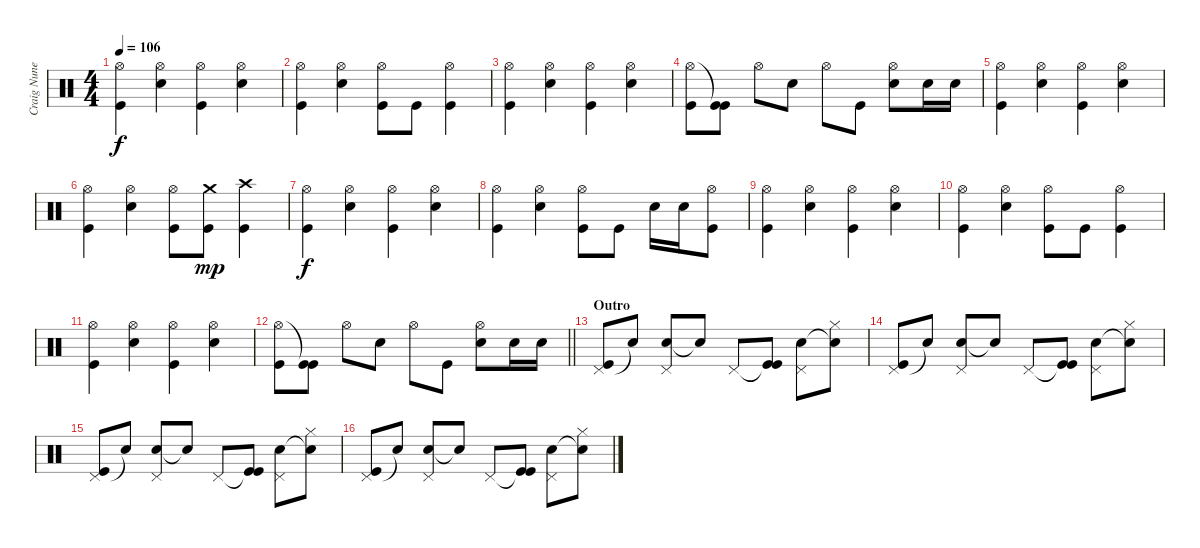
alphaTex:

\track ("Craig Nunemacher" "Craig Nune") {instrument percussion}
\staff {score}
\articulation defaults
\ts (4 4)
\tempo 106
\clef neutral
\ks c
("Hi-Hat (open)" "Kick (hit)").4{dy f} ("Snare (hit) 2" "Hi-Hat (open)").4 ("Hi-Hat (open)" "Kick (hit)").4 ("Snare (hit) 2" "Hi-Hat (open)").4 |
("Hi-Hat (open)" "Kick (hit)").4 ("Snare (hit) 2" "Hi-Hat (open)").4 ("Hi-Hat (open)" "Kick (hit)").8 "Kick (hit)".8 ("Hi-Hat (open)" "Kick (hit)").4 |
("Hi-Hat (open)" "Kick (hit)").4 ("Snare (hit) 2" "Hi-Hat (open)").4 ("Hi-Hat (open)" "Kick (hit)").4 ("Snare (hit) 2" "Hi-Hat (open)").4 |
("Hi-Hat (open)" "Kick (hit)").8 ("Kick (hit)"{t} "Kick (hit)").8 "Hi-Hat (open)".8 "Snare (hit) 2".8 "Hi-Hat (open)".8 "Kick (hit)".8 ("Snare (hit) 2" "Hi-Hat (open)").8 "Snare (hit) 2".16 "Snare (hit) 2".16 |
("Hi-Hat (open)" "Kick (hit)").4 ("Snare (hit) 2" "Hi-Hat (open)").4 ("Hi-Hat (open)" "Kick (hit)").4 ("Snare (hit) 2" "Hi-Hat (open)").4 |
("Hi-Hat (open)" "Kick (hit)").4 ("Snare (hit) 2" "Hi-Hat (open)").4 ("Hi-Hat (open)" "Kick (hit)").8 ("Crash medium (hit)" "Kick (hit)").8{dy mp} ("Crash high (hit)" "Kick (hit)").4 |
("Hi-Hat (open)" "Kick (hit)").4{dy f} ("Snare (hit) 2" "Hi-Hat (open)").4 ("Hi-Hat (open)" "Kick (hit)").4 ("Snare (hit) 2" "Hi-Hat (open)").4 |
("Hi-Hat (open)" "Kick (hit)").4 ("Snare (hit) 2" "Hi-Hat (open)").4 ("Hi-Hat (open)" "Kick (hit)").8 "Kick (hit)".8 "Snare (hit) 2".16 "Snare (hit) 2".16 ("Hi-Hat (open)" "Kick (hit)").8 |
("Hi-Hat (open)" "Kick (hit)").4 ("Snare (hit) 2" "Hi-Hat (open)").4 ("Hi-Hat (open)" "Kick (hit)").4 ("Snare (hit) 2" "Hi-Hat (open)").4 |
("Hi-Hat (open)" "Kick (hit)").4 ("Snare (hit) 2" "Hi-Hat (open)").4 ("Hi-Hat (open)" "Kick (hit)").8 "Kick (hit)".8 ("Hi-Hat (open)" "Kick (hit)").4 |
("Hi-Hat (open)" "Kick (hit)").4 ("Snare (hit) 2" "Hi-Hat (open)").4 ("Hi-Hat (open)" "Kick (hit)").4 ("Snare (hit) 2" "Hi-Hat (open)").4 |
\barLineRight lightlight
("Hi-Hat (open)" "Kick (hit)").8 ("Kick (hit)"{t} "Kick (hit)").8 "Hi-Hat (open)".8 "Snare (hit) 2".8 "Hi-Hat (open)".8 "Kick (hit)".8 ("Snare (hit) 2" "Hi-Hat (open)").8 "Snare (hit) 2".16 "Snare (hit) 2".16 |
\section ("" "Outro")
("Pedal Hi-Hat (hit)" "Kick (hit)").8 "Snare (hit)"{t}.8 ("Snare (hit) 2" "Pedal Hi-Hat (hit)").8 "Snare (hit)"{t}.8 "Pedal Hi-Hat (hit)".8 ("Kick (hit)"{t} "Kick (hit)").8 ("Snare (hit) 2" "Pedal Hi-Hat (hit)").8 ("Snare (hit)"{t} "Hi-Hat (closed)").8 |
("Pedal Hi-Hat (hit)" "Kick (hit)").8 "Snare (hit)"{t}.8 ("Snare (hit) 2" "Pedal Hi-Hat (hit)").8 "Snare (hit)"{t}.8 "Pedal Hi-Hat (hit)".8 ("Kick (hit)"{t} "Kick (hit)").8 ("Snare (hit) 2" "Pedal Hi-Hat (hit)").8 ("Snare (hit)"{t} "Hi-Hat (closed)").8 |
("Pedal Hi-Hat (hit)" "Kick (hit)").8 "Snare (hit)"{t}.8 ("Snare (hit) 2" "Pedal Hi-Hat (hit)").8 "Snare (hit)"{t}.8 "Pedal Hi-Hat (hit)".8 ("Kick (hit)"{t} "Kick (hit)").8 ("Snare (hit) 2" "Pedal Hi-Hat (hit)").8 ("Snare (hit)"{t} "Hi-Hat (closed)").8 |
("Pedal Hi-Hat (hit)" "Kick (hit)").8 "Snare (hit)"{t}.8 ("Snare (hit) 2" "Pedal Hi-Hat (hit)").8 "Snare (hit)"{t}.8 "Pedal Hi-Hat (hit)".8 ("Kick (hit)"{t} "Kick (hit)").8 ("Snare (hit) 2" "Pedal Hi-Hat (hit)").8 ("Snare (hit)"{t} "Hi-Hat (closed)").8
